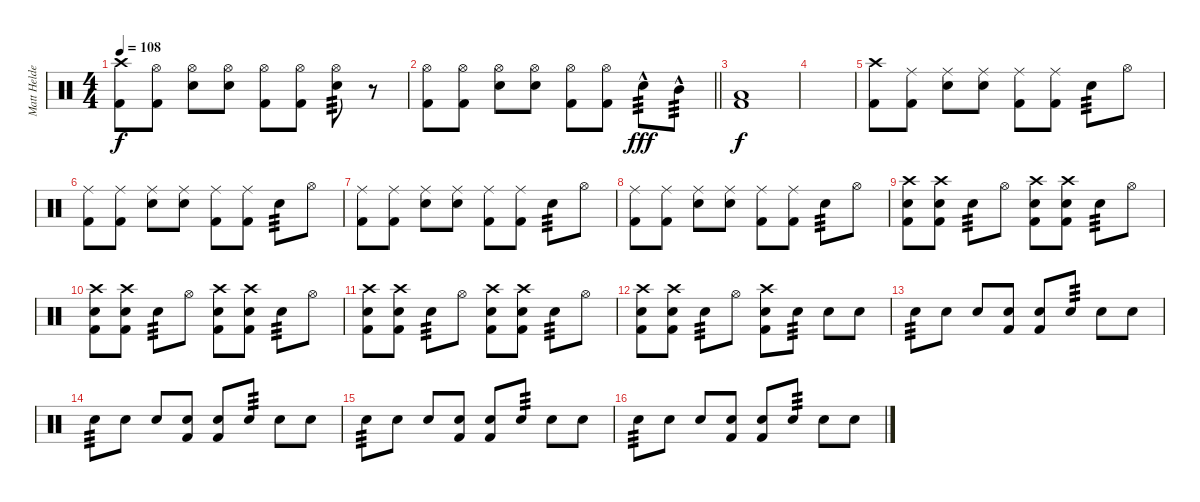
\track ("Matt Helder" "Matt Helde") {instrument percussion}
\staff {score}
\articulation defaults
\ts (4 4)
\tempo 108
\clef neutral
\ks c
("Crash high (hit)" "Kick (hit) 2").8{dy f} ("Hi-Hat (open)" "Kick (hit) 2").8 ("Hi-Hat (open)" "Electric Snare (hit)").8 ("Hi-Hat (open)" "Electric Snare (hit)").8 ("Hi-Hat (open)" "Kick (hit) 2").8 ("Hi-Hat (open)" "Kick (hit) 2").8 ("Hi-Hat (open)" "Electric Snare (hit)").8{tp 3} r.8 |
\barLineRight lightlight
("Hi-Hat (open)" "Kick (hit) 2").8 ("Hi-Hat (open)" "Kick (hit) 2").8 ("Hi-Hat (open)" "Electric Snare (hit)").8 ("Hi-Hat (open)" "Electric Snare (hit)").8 ("Hi-Hat (open)" "Kick (hit) 2").8 ("Hi-Hat (open)" "Kick (hit) 2").8 "Electric Snare (hit)"{hac}.8{tp 3 dy fff} "Mid Tom (hit)"{hac}.8{tp 3} |
("Low Floor Tom (hit)" "Kick (hit) 2").1{dy f} |
|
("Crash high (hit)" "Kick (hit) 2").8 ("Ride (middle)" "Kick (hit) 2").8 ("Ride (middle)" "Electric Snare (hit)").8 ("Ride (middle)" "Electric Snare (hit)").8 ("Ride (middle)" "Kick (hit) 2").8 ("Ride (middle)" "Kick (hit) 2").8 "Electric Snare (hit)".8{tp 3} "Hi-Hat (open)".8 |
("Ride (middle)" "Kick (hit) 2").8 ("Ride (middle)" "Kick (hit) 2").8 ("Ride (middle)" "Electric Snare (hit)").8 ("Ride (middle)" "Electric Snare (hit)").8 ("Ride (middle)" "Kick (hit) 2").8 ("Ride (middle)" "Kick (hit) 2").8 "Electric Snare (hit)".8{tp 3} "Hi-Hat (open)".8 |
("Ride (middle)" "Kick (hit) 2").8 ("Ride (middle)" "Kick (hit) 2").8 ("Ride (middle)" "Electric Snare (hit)").8 ("Ride (middle)" "Electric Snare (hit)").8 ("Ride (middle)" "Kick (hit) 2").8 ("Ride (middle)" "Kick (hit) 2").8 "Electric Snare (hit)".8{tp 3} "Hi-Hat (open)".8 |
("Ride (middle)" "Kick (hit) 2").8 ("Ride (middle)" "Kick (hit) 2").8 ("Ride (middle)" "Electric Snare (hit)").8 ("Ride (middle)" "Electric Snare (hit)").8 ("Ride (middle)" "Kick (hit) 2").8 ("Ride (middle)" "Kick (hit) 2").8 "Electric Snare (hit)".8{tp 3} "Hi-Hat (open)".8 |
("Crash high (hit)" "Electric Snare (hit)" "Kick (hit) 2").8 ("Crash high (hit)" "Electric Snare (hit)" "Kick (hit) 2").8 "Electric Snare (hit)".8{tp 3} "Hi-Hat (open)".8 ("Crash high (hit)" "Electric Snare (hit)" "Kick (hit) 2").8 ("Crash high (hit)" "Electric Snare (hit)" "Kick (hit) 2").8 "Electric Snare (hit)".8{tp 3} "Hi-Hat (open)".8 |
("Crash high (hit)" "Electric Snare (hit)" "Kick (hit) 2").8 ("Crash high (hit)" "Electric Snare (hit)" "Kick (hit) 2").8 "Electric Snare (hit)".8{tp 3} "Hi-Hat (open)".8 ("Crash high (hit)" "Electric Snare (hit)" "Kick (hit) 2").8 ("Crash high (hit)" "Electric Snare (hit)" "Kick (hit) 2").8 "Electric Snare (hit)".8{tp 3} "Hi-Hat (open)".8 |
("Crash high (hit)" "Electric Snare (hit)" "Kick (hit) 2").8 ("Crash high (hit)" "Electric Snare (hit)" "Kick (hit) 2").8 "Electric Snare (hit)".8{tp 3} "Hi-Hat (open)".8 ("Crash high (hit)" "Electric Snare (hit)" "Kick (hit) 2").8 ("Crash high (hit)" "Electric Snare (hit)" "Kick (hit) 2").8 "Electric Snare (hit)".8{tp 3} "Hi-Hat (open)".8 |
("Crash high (hit)" "Electric Snare (hit)" "Kick (hit) 2").8 ("Crash high (hit)" "Electric Snare (hit)" "Kick (hit) 2").8 "Electric Snare (hit)".8{tp 3} "Hi-Hat (open)".8 ("Crash high (hit)" "Electric Snare (hit)" "Kick (hit) 2").8 "Electric Snare (hit)".8{tp 3} "Electric Snare (hit)".8 "Electric Snare (hit)".8 |
"Electric Snare (hit)".8{tp 3} "Electric Snare (hit)".8 "Electric Snare (hit)".8 ("Electric Snare (hit)" "Kick (hit) 2").8 ("Electric Snare (hit)" "Kick (hit) 2").8 "Electric Snare (hit)".8{tp 3} "Electric Snare (hit)".8 "Electric Snare (hit)".8 |
"Electric Snare (hit)".8{tp 3} "Electric Snare (hit)".8 "Electric Snare (hit)".8 ("Electric Snare (hit)" "Kick (hit) 2").8 ("Electric Snare (hit)" "Kick (hit) 2").8 "Electric Snare (hit)".8{tp 3} "Electric Snare (hit)".8 "Electric Snare (hit)".8 |
"Electric Snare (hit)".8{tp 3} "Electric Snare (hit)".8 "Electric Snare (hit)".8 ("Electric Snare (hit)" "Kick (hit) 2").8 ("Electric Snare (hit)" "Kick (hit) 2").8 "Electric Snare (hit)".8{tp 3} "Electric Snare (hit)".8 "Electric Snare (hit)".8 |
"Electric Snare (hit)".8{tp 3} "Electric Snare (hit)".8 "Electric Snare (hit)".8 ("Electric Snare (hit)" "Kick (hit) 2").8 ("Electric Snare (hit)" "Kick (hit) 2").8 "Electric Snare (hit)".8{tp 3} "Electric Snare (hit)".8 "Electric Snare (hit)".8
